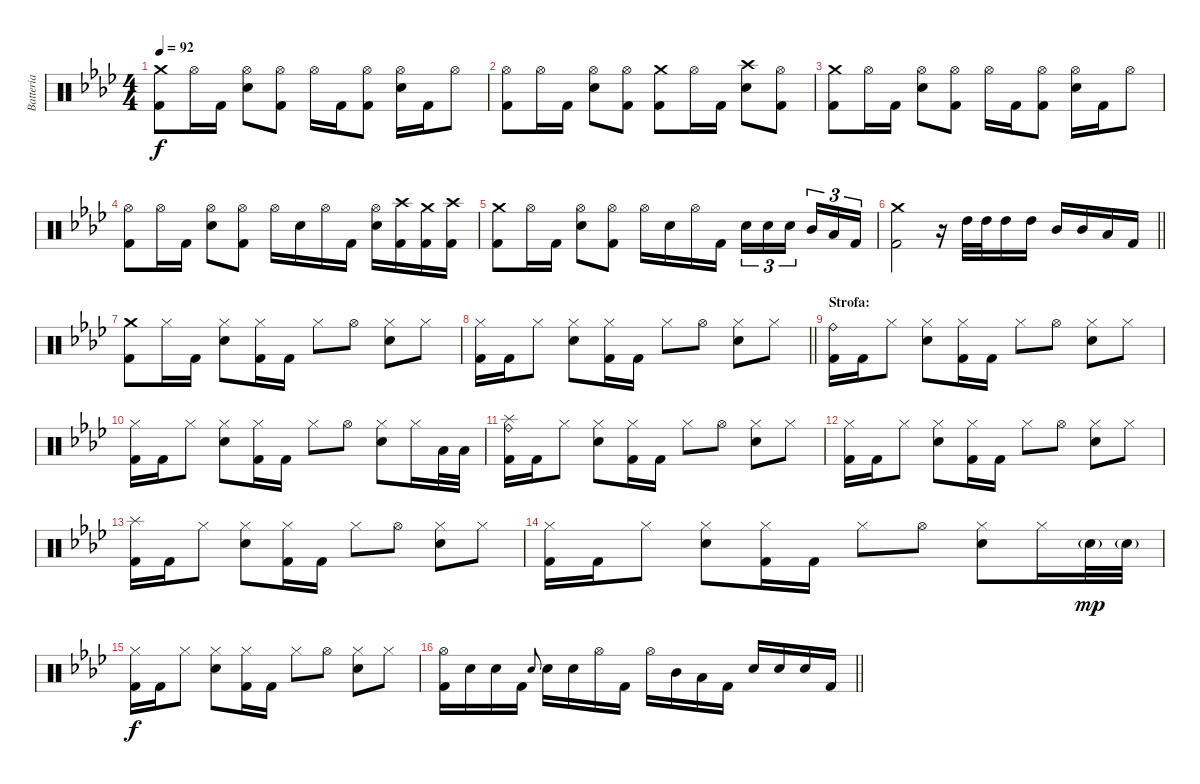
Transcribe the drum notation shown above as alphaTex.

\track ("Batteria" "Batteria") {instrument percussion}
\staff {score}
\articulation defaults
\ts (4 4)
\tempo 92
\clef neutral
\ks fminor
("Kick (hit) 2" "Crash medium (hit)").8{dy f} "Hi-Hat (open)".16 "Kick (hit) 2".16 ("Snare (hit) 2" "Hi-Hat (open)").8 ("Kick (hit) 2" "Hi-Hat (open)").8 "Hi-Hat (open)".16 "Kick (hit) 2".16 ("Kick (hit) 2" "Hi-Hat (open)").8 ("Snare (hit) 2" "Hi-Hat (open)").16 "Kick (hit) 2".16 "Hi-Hat (open)".8 |
("Kick (hit) 2" "Hi-Hat (open)").8 "Hi-Hat (open)".16 "Kick (hit) 2".16 ("Snare (hit) 2" "Hi-Hat (open)").8 ("Kick (hit) 2" "Hi-Hat (open)").8 ("Kick (hit) 2" "Crash medium (hit)").8 "Hi-Hat (open)".16 "Kick (hit) 2".16 ("Snare (hit) 2" "Crash high (hit)").8 ("Kick (hit) 2" "Hi-Hat (open)").8 |
("Kick (hit) 2" "Crash medium (hit)").8 "Hi-Hat (open)".16 "Kick (hit) 2".16 ("Snare (hit) 2" "Hi-Hat (open)").8 ("Kick (hit) 2" "Hi-Hat (open)").8 "Hi-Hat (open)".16 "Kick (hit) 2".16 ("Kick (hit) 2" "Hi-Hat (open)").8 ("Snare (hit) 2" "Hi-Hat (open)").16 "Kick (hit) 2".16 "Hi-Hat (open)".8 |
("Kick (hit) 2" "Hi-Hat (open)").8 "Hi-Hat (open)".16 "Kick (hit) 2".16 ("Snare (hit) 2" "Hi-Hat (open)").8 ("Kick (hit) 2" "Hi-Hat (open)").8 "Hi-Hat (open)".16 "Snare (hit) 2".16 "Hi-Hat (open)".16 "Kick (hit) 2".16 ("Snare (hit) 2" "Hi-Hat (open)").16 ("Kick (hit) 2" "Crash high (hit)").16 ("Kick (hit) 2" "Crash medium (hit)").16 ("Kick (hit) 2" "Crash high (hit)").16 |
("Kick (hit) 2" "Crash medium (hit)").8 "Hi-Hat (open)".16 "Kick (hit) 2".16 ("Snare (hit) 2" "Hi-Hat (open)").8 ("Kick (hit) 2" "Hi-Hat (open)").8 "Hi-Hat (open)".16 "Snare (hit) 2".16 "Hi-Hat (open)".16 "Kick (hit) 2".16 "Snare (hit) 2".16{tu (3 2)} "Snare (hit) 2".16{tu (3 2)} "Snare (hit) 2".16{tu (3 2) beam splitsecondary} "Mid Tom (hit)".16{tu (3 2)} "Low Tom (hit)".16{tu (3 2)} "Kick (hit) 2".16{tu (3 2)} |
\barLineRight lightlight
("Kick (hit) 2" "Crash medium (hit)").2 r.16 "High Tom (hit)".32 "High Tom (hit)".32 "High Tom (hit)".16 "High Tom (hit)".16 "Mid Tom (hit)".16 "Mid Tom (hit)".16 "Low Tom (hit)".16 "Kick (hit) 2".16 |
("Kick (hit) 2" "Crash medium (hit)").8 "Hi-Hat (closed)".16 "Kick (hit) 2".16 ("Snare (hit) 2" "Hi-Hat (closed)").8 ("Kick (hit) 2" "Hi-Hat (closed)").16 "Kick (hit) 2".16 "Hi-Hat (closed)".8 "Hi-Hat (open)".8 ("Snare (hit) 2" "Hi-Hat (closed)").8 "Hi-Hat (closed)".8 |
\barLineRight lightlight
("Kick (hit) 2" "Hi-Hat (closed)").16 "Kick (hit) 2".16 "Hi-Hat (closed)".8 ("Snare (hit) 2" "Hi-Hat (closed)").8 ("Kick (hit) 2" "Hi-Hat (closed)").16 "Kick (hit) 2".16 "Hi-Hat (closed)".8 "Hi-Hat (open)".8 ("Snare (hit) 2" "Hi-Hat (closed)").8 "Hi-Hat (closed)".8 |
\section ("" "Strofa:")
("Kick (hit) 2" "Ride (bell)").16 "Kick (hit) 2".16 "Hi-Hat (closed)".8 ("Snare (hit) 2" "Hi-Hat (closed)").8 ("Kick (hit) 2" "Hi-Hat (closed)").16 "Kick (hit) 2".16 "Hi-Hat (closed)".8 "Hi-Hat (open)".8 ("Snare (hit) 2" "Hi-Hat (closed)").8 "Hi-Hat (closed)".8 |
("Kick (hit) 2" "Hi-Hat (closed)").16 "Kick (hit) 2".16 "Hi-Hat (closed)".8 ("Snare (hit) 2" "Hi-Hat (closed)").8 ("Kick (hit) 2" "Hi-Hat (closed)").16 "Kick (hit) 2".16 "Hi-Hat (closed)".8 "Hi-Hat (open)".8 ("Snare (hit) 2" "Hi-Hat (closed)").8 "Hi-Hat (closed)".16 "Low Tom (hit)".32 "Low Tom (hit)".32 |
("Kick (hit) 2" "Ride (bell)" "Splash (hit)").16 "Kick (hit) 2".16 "Hi-Hat (closed)".8 ("Snare (hit) 2" "Hi-Hat (closed)").8 ("Kick (hit) 2" "Hi-Hat (closed)").16 "Kick (hit) 2".16 "Hi-Hat (closed)".8 "Hi-Hat (open)".8 ("Snare (hit) 2" "Hi-Hat (closed)").8 "Hi-Hat (closed)".8 |
("Kick (hit) 2" "Hi-Hat (closed)").16 "Kick (hit) 2".16 "Hi-Hat (closed)".8 ("Snare (hit) 2" "Hi-Hat (closed)").8 ("Kick (hit) 2" "Hi-Hat (closed)").16 "Kick (hit) 2".16 "Hi-Hat (closed)".8 "Hi-Hat (open)".8 ("Snare (hit) 2" "Hi-Hat (closed)").8 "Hi-Hat (closed)".8 |
("Kick (hit) 2" "Splash (hit)").16 "Kick (hit) 2".16 "Hi-Hat (closed)".8 ("Snare (hit) 2" "Hi-Hat (closed)").8 ("Kick (hit) 2" "Hi-Hat (closed)").16 "Kick (hit) 2".16 "Hi-Hat (closed)".8 "Hi-Hat (open)".8 ("Snare (hit) 2" "Hi-Hat (closed)").8 "Hi-Hat (closed)".8 |
("Kick (hit) 2" "Hi-Hat (closed)").16 "Kick (hit) 2".16 "Hi-Hat (closed)".8 ("Snare (hit) 2" "Hi-Hat (closed)").8 ("Kick (hit) 2" "Hi-Hat (closed)").16 "Kick (hit) 2".16 "Hi-Hat (closed)".8 "Hi-Hat (open)".8 ("Snare (hit) 2" "Hi-Hat (closed)").8 "Hi-Hat (closed)".16 "Snare (hit) 2"{g}.32{dy mp} "Snare (hit) 2"{g}.32 |
("Kick (hit) 2" "Hi-Hat (closed)").16{dy f} "Kick (hit) 2".16 "Hi-Hat (closed)".8 ("Snare (hit) 2" "Hi-Hat (closed)").8 ("Kick (hit) 2" "Hi-Hat (closed)").16 "Kick (hit) 2".16 "Hi-Hat (closed)".8 "Hi-Hat (open)".8 ("Snare (hit) 2" "Hi-Hat (closed)").8 "Hi-Hat (closed)".8 |
\barLineRight lightlight
("Kick (hit) 2" "Hi-Hat (open)").16 "Electric Snare (hit)".16 "Electric Snare (hit)".16 "Kick (hit) 2".16 "Electric Snare (hit)".8{gr onbeat} "Electric Snare (hit)".16 "Electric Snare (hit)".16 "Hi-Hat (open)".16 "Kick (hit) 2".16 "Hi-Hat (open)".16 "Mid Tom (hit)".16 "Low Tom (hit)".16 "Kick (hit) 2".16 "Snare (hit) 2".16 "Snare (hit) 2".16 "Snare (hit) 2".16 "Kick (hit) 2".16
